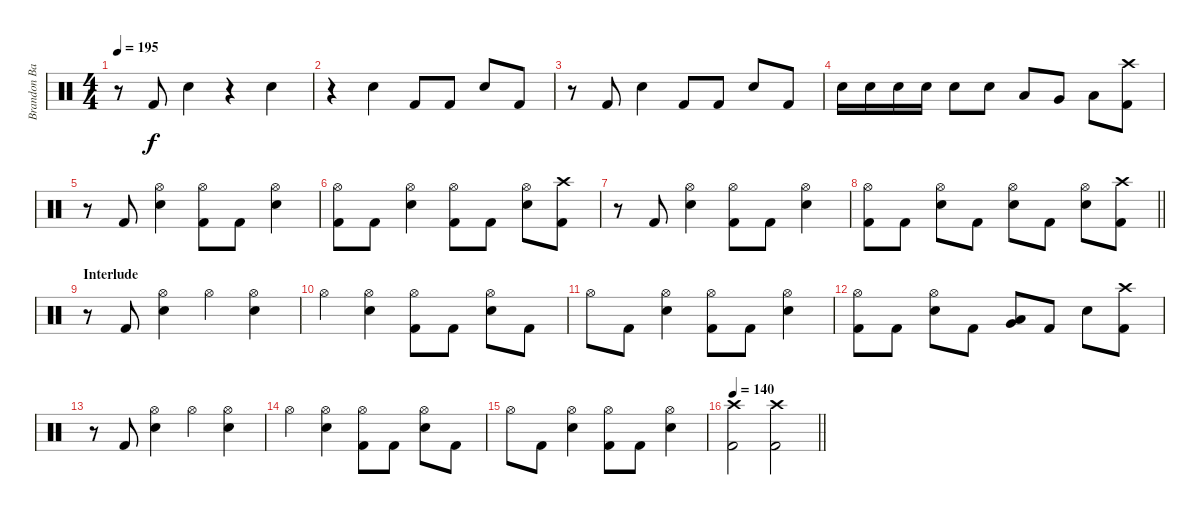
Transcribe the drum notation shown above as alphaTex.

\track ("Brandon Barnes - Drums" "Brandon Ba") {instrument percussion}
\staff {score}
\articulation defaults
\ts (4 4)
\tempo 195
\clef neutral
\ks c
r.8{dy f} "Kick (hit) 2".8 "Snare (hit) 2".4 r.4 "Snare (hit) 2".4 |
r.4 "Snare (hit) 2".4 "Kick (hit) 2".8 "Kick (hit) 2".8 "Snare (hit) 2".8 "Kick (hit) 2".8 |
r.8 "Kick (hit) 2".8 "Snare (hit) 2".4 "Kick (hit) 2".8 "Kick (hit) 2".8 "Snare (hit) 2".8 "Kick (hit) 2".8 |
"Snare (hit) 2".16 "Snare (hit) 2".16 "Snare (hit) 2".16 "Snare (hit) 2".16 "Snare (hit) 2".8 "Snare (hit) 2".8 "Low Tom (hit)".8 "Very Low Tom (hit)".8 "Low Floor Tom (hit)".8 ("Kick (hit) 2" "Crash high (hit)").8 |
r.8 "Kick (hit) 2".8 ("Snare (hit) 2" "Hi-Hat (open)").4 ("Kick (hit) 2" "Hi-Hat (open)").8 "Kick (hit) 2".8 ("Snare (hit) 2" "Hi-Hat (open)").4 |
("Kick (hit) 2" "Hi-Hat (open)").8 "Kick (hit) 2".8 ("Snare (hit) 2" "Hi-Hat (open)").4 ("Kick (hit) 2" "Hi-Hat (open)").8 "Kick (hit) 2".8 ("Snare (hit) 2" "Hi-Hat (open)").8 ("Crash high (hit)" "Kick (hit) 2").8 |
r.8 "Kick (hit) 2".8 ("Snare (hit) 2" "Hi-Hat (open)").4 ("Kick (hit) 2" "Hi-Hat (open)").8 "Kick (hit) 2".8 ("Snare (hit) 2" "Hi-Hat (open)").4 |
\barLineRight lightlight
("Kick (hit) 2" "Hi-Hat (open)").8 "Kick (hit) 2".8 ("Snare (hit) 2" "Hi-Hat (open)").8 "Kick (hit) 2".8 ("Snare (hit) 2" "Hi-Hat (open)").8 "Kick (hit) 2".8 ("Snare (hit) 2" "Hi-Hat (open)").8 ("Crash high (hit)" "Kick (hit) 2").8 |
\section ("" "Interlude")
r.8 "Kick (hit) 2".8 ("Snare (hit) 2" "Hi-Hat (open)").4 "Hi-Hat (open)".4 ("Snare (hit) 2" "Hi-Hat (open)").4 |
"Hi-Hat (open)".4 ("Snare (hit) 2" "Hi-Hat (open)").4 ("Kick (hit) 2" "Hi-Hat (open)").8 "Kick (hit) 2".8 ("Snare (hit) 2" "Hi-Hat (open)").8 "Kick (hit) 2".8 |
"Hi-Hat (open)".8 "Kick (hit) 2".8 ("Snare (hit) 2" "Hi-Hat (open)").4 ("Kick (hit) 2" "Hi-Hat (open)").8 "Kick (hit) 2".8 ("Snare (hit) 2" "Hi-Hat (open)").4 |
("Kick (hit) 2" "Hi-Hat (open)").8 "Kick (hit) 2".8 ("Snare (hit) 2" "Hi-Hat (open)").8 "Kick (hit) 2".8 ("Low Tom (hit)" "Very Low Tom (hit)").8 "Kick (hit) 2".8 "Snare (hit) 2".8 ("Crash high (hit)" "Kick (hit) 2").8 |
r.8 "Kick (hit) 2".8 ("Snare (hit) 2" "Hi-Hat (open)").4 "Hi-Hat (open)".4 ("Snare (hit) 2" "Hi-Hat (open)").4 |
"Hi-Hat (open)".4 ("Snare (hit) 2" "Hi-Hat (open)").4 ("Kick (hit) 2" "Hi-Hat (open)").8 "Kick (hit) 2".8 ("Snare (hit) 2" "Hi-Hat (open)").8 "Kick (hit) 2".8 |
"Hi-Hat (open)".8 "Kick (hit) 2".8 ("Snare (hit) 2" "Hi-Hat (open)").4 ("Kick (hit) 2" "Hi-Hat (open)").8 "Kick (hit) 2".8 ("Snare (hit) 2" "Hi-Hat (open)").4 |
\tempo 140
\barLineRight lightlight
("Crash high (hit)" "Kick (hit) 2").2 ("Crash high (hit)" "Kick (hit) 2").2
